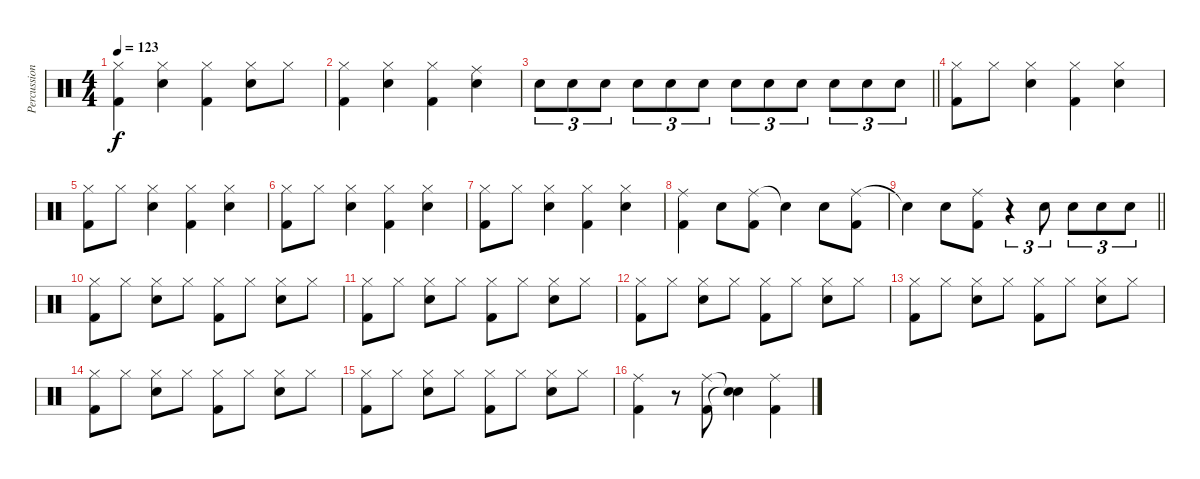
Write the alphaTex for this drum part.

\track ("Percussions" "Percussion") {instrument percussion}
\staff {score}
\articulation defaults
\ts (4 4)
\tempo 123
\clef neutral
\ks c
("Hi-Hat (closed)" "Kick (hit) 2").4{dy f} ("Hi-Hat (closed)" "Snare (hit) 2").4 ("Hi-Hat (closed)" "Kick (hit) 2").4 ("Hi-Hat (closed)" "Snare (hit) 2").8 "Hi-Hat (closed)".8 |
("Hi-Hat (closed)" "Kick (hit) 2").4 ("Hi-Hat (closed)" "Snare (hit) 2").4 ("Hi-Hat (closed)" "Kick (hit) 2").4 ("Ride (middle)" "Snare (hit) 2").4 |
\barLineRight lightlight "Snare (hit) 2".8{tu (3 2)} "Snare (hit) 2".8{tu (3 2)} "Snare (hit) 2".8{tu (3 2)} "Snare (hit) 2".8{tu (3 2)} "Snare (hit) 2".8{tu (3 2)} "Snare (hit) 2".8{tu (3 2)} "Snare (hit) 2".8{tu (3 2)} "Snare (hit) 2".8{tu (3 2)} "Snare (hit) 2".8{tu (3 2)} "Snare (hit) 2".8{tu (3 2)} "Snare (hit) 2".8{tu (3 2)} "Snare (hit) 2".8{tu (3 2)}
|
("Kick (hit) 2" "Hi-Hat (closed)").8 "Hi-Hat (closed)".8 ("Snare (hit) 2" "Hi-Hat (closed)").4 ("Kick (hit) 2" "Hi-Hat (closed)").4 ("Snare (hit) 2" "Hi-Hat (closed)").4 |
("Kick (hit) 2" "Hi-Hat (closed)").8 "Hi-Hat (closed)".8 ("Snare (hit) 2" "Hi-Hat (closed)").4 ("Kick (hit) 2" "Hi-Hat (closed)").4 ("Snare (hit) 2" "Hi-Hat (closed)").4 |
("Kick (hit) 2" "Hi-Hat (closed)").8 "Hi-Hat (closed)".8 ("Snare (hit) 2" "Hi-Hat (closed)").4 ("Kick (hit) 2" "Hi-Hat (closed)").4 ("Snare (hit) 2" "Hi-Hat (closed)").4 |
("Kick (hit) 2" "Hi-Hat (closed)").8 "Hi-Hat (closed)".8 ("Snare (hit) 2" "Hi-Hat (closed)").4 ("Kick (hit) 2" "Hi-Hat (closed)").4 ("Snare (hit) 2" "Hi-Hat (closed)").4 |
("Ride (middle)" "Kick (hit) 2").4 "Snare (hit) 2".8 ("Ride (middle)" "Kick (hit) 2").8 "Snare (hit)"{t}.4 "Snare (hit) 2".8 ("Ride (middle)" "Kick (hit) 2").8 |
\barLineRight lightlight "Snare (hit)"{t}.4 "Snare (hit) 2".8
("Ride (middle)" "Kick (hit) 2").8 r.4{tu (3 2)} "Snare (hit) 2".8{tu (3 2)} "Snare (hit) 2".8{tu (3 2)} "Snare (hit) 2".8{tu (3 2)} "Snare (hit) 2".8{tu (3 2)} |
("Hi-Hat (closed)" "Kick (hit) 2").8 "Hi-Hat (closed)".8 ("Hi-Hat (closed)" "Snare (hit) 2").8 "Hi-Hat (closed)".8 ("Hi-Hat (closed)" "Kick (hit) 2").8 "Hi-Hat (closed)".8 ("Hi-Hat (closed)" "Snare (hit) 2").8 "Hi-Hat (closed)".8 |
("Hi-Hat (closed)" "Kick (hit) 2").8 "Hi-Hat (closed)".8 ("Hi-Hat (closed)" "Snare (hit) 2").8 "Hi-Hat (closed)".8 ("Hi-Hat (closed)" "Kick (hit) 2").8 "Hi-Hat (closed)".8 ("Hi-Hat (closed)" "Snare (hit) 2").8 "Hi-Hat (closed)".8 |
("Hi-Hat (closed)" "Kick (hit) 2").8 "Hi-Hat (closed)".8 ("Hi-Hat (closed)" "Snare (hit) 2").8 "Hi-Hat (closed)".8 ("Hi-Hat (closed)" "Kick (hit) 2").8 "Hi-Hat (closed)".8 ("Hi-Hat (closed)" "Snare (hit) 2").8 "Hi-Hat (closed)".8 |
("Hi-Hat (closed)" "Kick (hit) 2").8 "Hi-Hat (closed)".8 ("Hi-Hat (closed)" "Snare (hit) 2").8 "Hi-Hat (closed)".8 ("Hi-Hat (closed)" "Kick (hit) 2").8 "Hi-Hat (closed)".8 ("Hi-Hat (closed)" "Snare (hit) 2").8 "Hi-Hat (closed)".8 |
("Hi-Hat (closed)" "Kick (hit) 2").8 "Hi-Hat (closed)".8 ("Hi-Hat (closed)" "Snare (hit) 2").8 "Hi-Hat (closed)".8 ("Hi-Hat (closed)" "Kick (hit) 2").8 "Hi-Hat (closed)".8 ("Hi-Hat (closed)" "Snare (hit) 2").8 "Hi-Hat (closed)".8 |
("Hi-Hat (closed)" "Kick (hit) 2").8 "Hi-Hat (closed)".8 ("Hi-Hat (closed)" "Snare (hit) 2").8 "Hi-Hat (closed)".8 ("Hi-Hat (closed)" "Kick (hit) 2").8 "Hi-Hat (closed)".8 ("Hi-Hat (closed)" "Snare (hit) 2").8 "Hi-Hat (closed)".8 |
("Ride (middle)" "Kick (hit) 2").4 r.8 ("Ride (middle)" "Kick (hit) 2").8 ("Snare (hit)"{t} "Snare (hit)"{t}).4 ("Ride (middle)" "Kick (hit) 2").4
